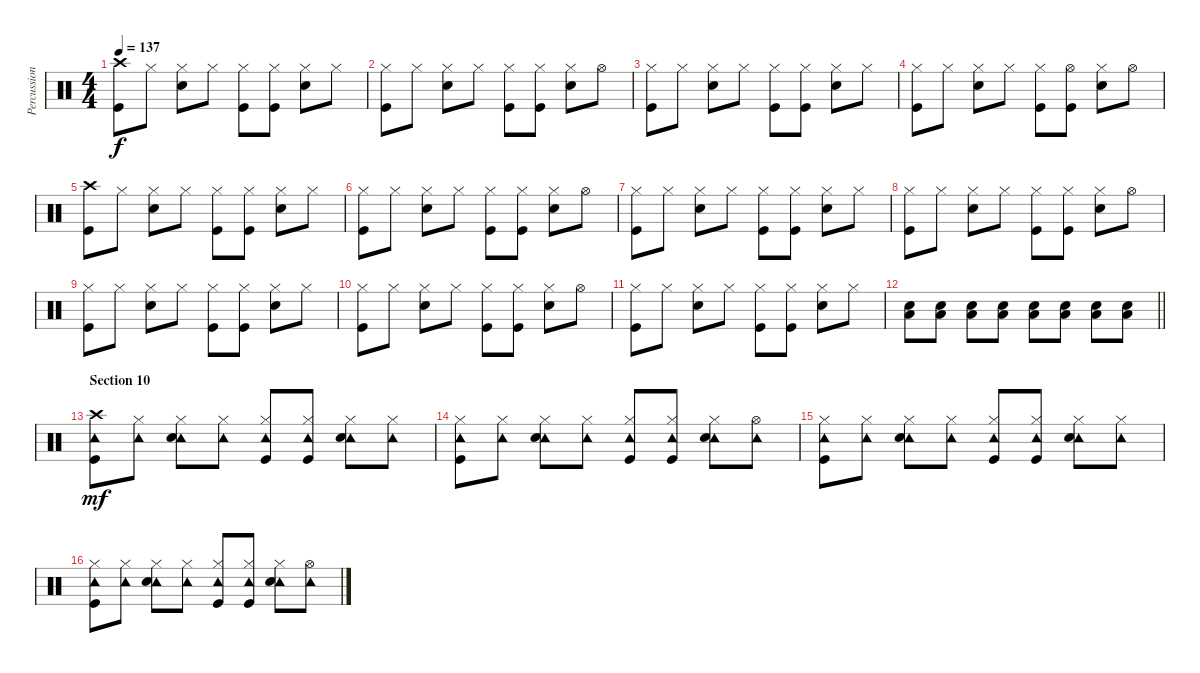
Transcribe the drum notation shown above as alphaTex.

\track ("Percussion" "Percussion") {instrument percussion}
\staff {score}
\articulation defaults
\ts (4 4)
\tempo 137
\clef neutral
\ks c
("Crash high (hit)" "Kick (hit)").8{dy f} "Hi-Hat (closed)".8 ("Hi-Hat (closed)" "Snare (hit) 2").8 "Hi-Hat (closed)".8 ("Hi-Hat (closed)" "Kick (hit)").8 ("Hi-Hat (closed)" "Kick (hit)").8 ("Hi-Hat (closed)" "Snare (hit) 2").8 "Hi-Hat (closed)".8 |
("Hi-Hat (closed)" "Kick (hit)").8 "Hi-Hat (closed)".8 ("Hi-Hat (closed)" "Snare (hit) 2").8 "Hi-Hat (closed)".8 ("Hi-Hat (closed)" "Kick (hit)").8 ("Hi-Hat (closed)" "Kick (hit)").8 ("Hi-Hat (closed)" "Snare (hit) 2").8 "Hi-Hat (open)".8 |
("Hi-Hat (closed)" "Kick (hit)").8 "Hi-Hat (closed)".8 ("Hi-Hat (closed)" "Snare (hit) 2").8 "Hi-Hat (closed)".8 ("Hi-Hat (closed)" "Kick (hit)").8 ("Hi-Hat (closed)" "Kick (hit)").8 ("Hi-Hat (closed)" "Snare (hit) 2").8 "Hi-Hat (closed)".8 |
("Hi-Hat (closed)" "Kick (hit)").8 "Hi-Hat (closed)".8 ("Hi-Hat (closed)" "Snare (hit) 2").8 "Hi-Hat (closed)".8 ("Hi-Hat (closed)" "Kick (hit)").8 ("Hi-Hat (open)" "Kick (hit)").8 ("Hi-Hat (closed)" "Snare (hit) 2").8 "Hi-Hat (open)".8 |
("Crash high (hit)" "Kick (hit)").8 "Hi-Hat (closed)".8 ("Hi-Hat (closed)" "Snare (hit) 2").8 "Hi-Hat (closed)".8 ("Hi-Hat (closed)" "Kick (hit)").8 ("Hi-Hat (closed)" "Kick (hit)").8 ("Hi-Hat (closed)" "Snare (hit) 2").8 "Hi-Hat (closed)".8 |
("Hi-Hat (closed)" "Kick (hit)").8 "Hi-Hat (closed)".8 ("Hi-Hat (closed)" "Snare (hit) 2").8 "Hi-Hat (closed)".8 ("Hi-Hat (closed)" "Kick (hit)").8 ("Hi-Hat (closed)" "Kick (hit)").8 ("Hi-Hat (closed)" "Snare (hit) 2").8 "Hi-Hat (open)".8 |
("Hi-Hat (closed)" "Kick (hit)").8 "Hi-Hat (closed)".8 ("Hi-Hat (closed)" "Snare (hit) 2").8 "Hi-Hat (closed)".8 ("Hi-Hat (closed)" "Kick (hit)").8 ("Hi-Hat (closed)" "Kick (hit)").8 ("Hi-Hat (closed)" "Snare (hit) 2").8 "Hi-Hat (closed)".8 |
("Hi-Hat (closed)" "Kick (hit)").8 "Hi-Hat (closed)".8 ("Hi-Hat (closed)" "Snare (hit) 2").8 "Hi-Hat (closed)".8 ("Hi-Hat (closed)" "Kick (hit)").8 ("Hi-Hat (closed)" "Kick (hit)").8 ("Hi-Hat (closed)" "Snare (hit) 2").8 "Hi-Hat (open)".8 |
("Hi-Hat (closed)" "Kick (hit)").8 "Hi-Hat (closed)".8 ("Hi-Hat (closed)" "Snare (hit) 2").8 "Hi-Hat (closed)".8 ("Hi-Hat (closed)" "Kick (hit)").8 ("Hi-Hat (closed)" "Kick (hit)").8 ("Hi-Hat (closed)" "Snare (hit) 2").8 "Hi-Hat (closed)".8 |
("Hi-Hat (closed)" "Kick (hit)").8 "Hi-Hat (closed)".8 ("Hi-Hat (closed)" "Snare (hit) 2").8 "Hi-Hat (closed)".8 ("Hi-Hat (closed)" "Kick (hit)").8 ("Hi-Hat (closed)" "Kick (hit)").8 ("Hi-Hat (closed)" "Snare (hit) 2").8 "Hi-Hat (open)".8 |
("Hi-Hat (closed)" "Kick (hit)").8 "Hi-Hat (closed)".8 ("Hi-Hat (closed)" "Snare (hit) 2").8 "Hi-Hat (closed)".8 ("Hi-Hat (closed)" "Kick (hit)").8 ("Hi-Hat (closed)" "Kick (hit)").8 ("Hi-Hat (closed)" "Snare (hit) 2").8 "Hi-Hat (closed)".8 |
\barLineRight lightlight
("Low Tom (hit)" "Snare (hit) 2").8 ("Low Tom (hit)" "Snare (hit) 2").8 ("Low Tom (hit)" "Snare (hit) 2").8 ("Low Tom (hit)" "Snare (hit) 2").8 ("Low Tom (hit)" "Snare (hit) 2").8 ("Low Tom (hit)" "Snare (hit) 2").8 ("Low Tom (hit)" "Snare (hit) 2").8 ("Low Tom (hit)" "Snare (hit) 2").8 |
\section ("" "Section 10")
("Tambourine (hit)" "Crash high (hit)" "Kick (hit)").8{dy mf} ("Tambourine (hit)" "Hi-Hat (closed)").8 ("Tambourine (hit)" "Hi-Hat (closed)" "Snare (hit) 2").8 ("Tambourine (hit)" "Hi-Hat (closed)").8 ("Tambourine (hit)" "Hi-Hat (closed)" "Kick (hit)").8 ("Tambourine (hit)" "Hi-Hat (closed)" "Kick (hit)").8 ("Tambourine (hit)" "Hi-Hat (closed)" "Snare (hit) 2").8 ("Tambourine (hit)" "Hi-Hat (closed)").8 |
("Tambourine (hit)" "Hi-Hat (closed)" "Kick (hit)").8 ("Tambourine (hit)" "Hi-Hat (closed)").8 ("Tambourine (hit)" "Hi-Hat (closed)" "Snare (hit) 2").8 ("Tambourine (hit)" "Hi-Hat (closed)").8 ("Tambourine (hit)" "Hi-Hat (closed)" "Kick (hit)").8 ("Tambourine (hit)" "Hi-Hat (closed)" "Kick (hit)").8 ("Tambourine (hit)" "Hi-Hat (closed)" "Snare (hit) 2").8 ("Tambourine (hit)" "Hi-Hat (open)").8 |
("Tambourine (hit)" "Hi-Hat (closed)" "Kick (hit)").8 ("Tambourine (hit)" "Hi-Hat (closed)").8 ("Tambourine (hit)" "Hi-Hat (closed)" "Snare (hit) 2").8 ("Tambourine (hit)" "Hi-Hat (closed)").8 ("Tambourine (hit)" "Hi-Hat (closed)" "Kick (hit)").8 ("Tambourine (hit)" "Hi-Hat (closed)" "Kick (hit)").8 ("Tambourine (hit)" "Hi-Hat (closed)" "Snare (hit) 2").8 ("Tambourine (hit)" "Hi-Hat (closed)").8 |
("Tambourine (hit)" "Hi-Hat (closed)" "Kick (hit)").8 ("Tambourine (hit)" "Hi-Hat (closed)").8 ("Tambourine (hit)" "Hi-Hat (closed)" "Snare (hit) 2").8 ("Tambourine (hit)" "Hi-Hat (closed)").8 ("Tambourine (hit)" "Hi-Hat (closed)" "Kick (hit)").8 ("Tambourine (hit)" "Hi-Hat (closed)" "Kick (hit)").8 ("Tambourine (hit)" "Hi-Hat (closed)" "Snare (hit) 2").8 ("Tambourine (hit)" "Hi-Hat (open)").8
